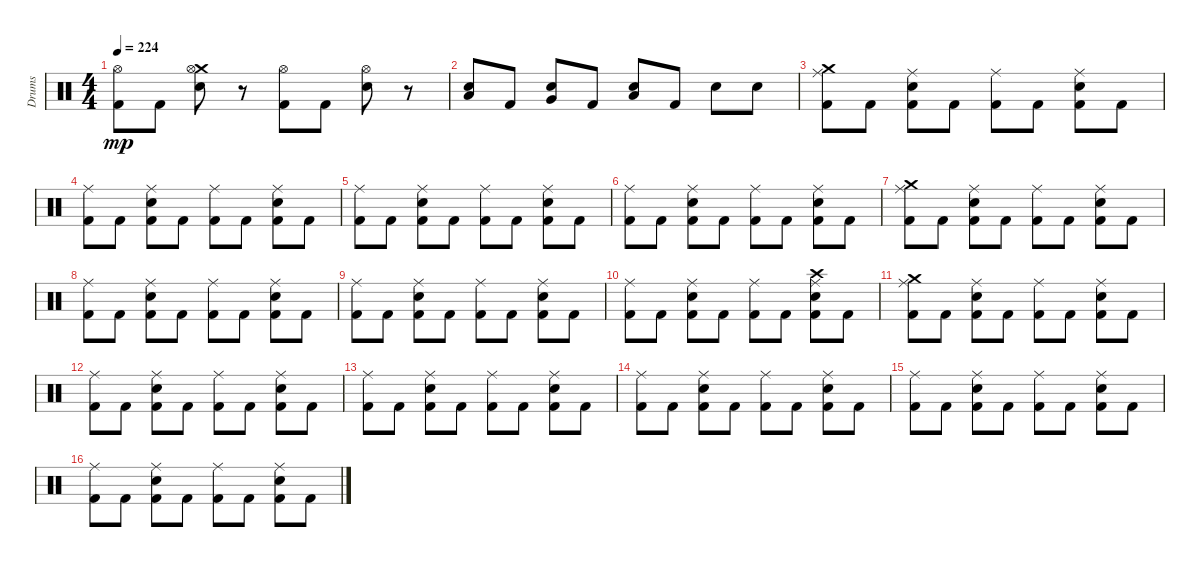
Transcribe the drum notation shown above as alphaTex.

\track ("Drums" "Drums") {instrument percussion}
\staff {score}
\articulation defaults
\ts (4 4)
\tempo 224
\clef neutral
\ks c
("Kick (hit) 2" "Hi-Hat (open)").8{dy mp} "Kick (hit) 2".8 ("Crash medium (hit)" "Hi-Hat (open)" "Electric Snare (hit)").8 r.8 ("Hi-Hat (open)" "Kick (hit) 2").8 "Kick (hit) 2".8 ("Hi-Hat (open)" "Electric Snare (hit)").8 r.8 |
("Electric Snare (hit)" "Low Tom (hit)").8 "Kick (hit) 2".8 ("Very Low Tom (hit)" "Electric Snare (hit)").8 "Kick (hit) 2".8 ("Low Floor Tom (hit)" "Electric Snare (hit)").8 "Kick (hit) 2".8 "Electric Snare (hit)".8 "Electric Snare (hit)".8 |
("Crash medium (hit)" "Kick (hit) 2" "Ride (middle)").8 "Kick (hit) 2".8 ("Electric Snare (hit)" "Kick (hit) 2" "Ride (middle)").8 "Kick (hit) 2".8 ("Ride (middle)" "Kick (hit) 2").8 "Kick (hit) 2".8 ("Electric Snare (hit)" "Kick (hit) 2" "Ride (middle)").8 "Kick (hit) 2".8 |
("Ride (middle)" "Kick (hit) 2").8 "Kick (hit) 2".8 ("Kick (hit) 2" "Ride (middle)" "Electric Snare (hit)").8 "Kick (hit) 2".8 ("Ride (middle)" "Kick (hit) 2").8 "Kick (hit) 2".8 ("Kick (hit) 2" "Electric Snare (hit)" "Ride (middle)").8 "Kick (hit) 2".8 |
("Kick (hit) 2" "Ride (middle)").8 "Kick (hit) 2".8 ("Ride (middle)" "Electric Snare (hit)" "Kick (hit) 2").8 "Kick (hit) 2".8 ("Kick (hit) 2" "Ride (middle)").8 "Kick (hit) 2".8 ("Electric Snare (hit)" "Ride (middle)" "Kick (hit) 2").8 "Kick (hit) 2".8 |
("Kick (hit) 2" "Ride (middle)").8 "Kick (hit) 2".8 ("Kick (hit) 2" "Electric Snare (hit)" "Ride (middle)").8 "Kick (hit) 2".8 ("Ride (middle)" "Kick (hit) 2").8 "Kick (hit) 2".8 ("Electric Snare (hit)" "Kick (hit) 2" "Ride (middle)").8 "Kick (hit) 2".8 |
("Ride (middle)" "Kick (hit) 2" "Crash medium (hit)").8 "Kick (hit) 2".8 ("Ride (middle)" "Electric Snare (hit)" "Kick (hit) 2").8 "Kick (hit) 2".8 ("Ride (middle)" "Kick (hit) 2").8 "Kick (hit) 2".8 ("Ride (middle)" "Electric Snare (hit)" "Kick (hit) 2").8 "Kick (hit) 2".8 |
("Kick (hit) 2" "Ride (middle)").8 "Kick (hit) 2".8 ("Electric Snare (hit)" "Kick (hit) 2" "Ride (middle)").8 "Kick (hit) 2".8 ("Kick (hit) 2" "Ride (middle)").8 "Kick (hit) 2".8 ("Electric Snare (hit)" "Kick (hit) 2" "Ride (middle)").8 "Kick (hit) 2".8 |
("Kick (hit) 2" "Ride (middle)").8 "Kick (hit) 2".8 ("Kick (hit) 2" "Electric Snare (hit)" "Ride (middle)").8 "Kick (hit) 2".8 ("Ride (middle)" "Kick (hit) 2").8 "Kick (hit) 2".8 ("Ride (middle)" "Kick (hit) 2" "Electric Snare (hit)").8 "Kick (hit) 2".8 |
("Kick (hit) 2" "Ride (middle)").8 "Kick (hit) 2".8 ("Electric Snare (hit)" "Ride (middle)" "Kick (hit) 2").8 "Kick (hit) 2".8 ("Ride (middle)" "Kick (hit) 2").8 "Kick (hit) 2".8 ("Ride (middle)" "Electric Snare (hit)" "Crash high (hit)" "Kick (hit) 2").8 "Kick (hit) 2".8 |
("Ride (middle)" "Crash medium (hit)" "Kick (hit) 2").8 "Kick (hit) 2".8 ("Ride (middle)" "Kick (hit) 2" "Electric Snare (hit)").8 "Kick (hit) 2".8 ("Kick (hit) 2" "Ride (middle)").8 "Kick (hit) 2".8 ("Kick (hit) 2" "Ride (middle)" "Electric Snare (hit)").8 "Kick (hit) 2".8 |
("Ride (middle)" "Kick (hit) 2").8 "Kick (hit) 2".8 ("Electric Snare (hit)" "Kick (hit) 2" "Ride (middle)").8 "Kick (hit) 2".8 ("Kick (hit) 2" "Ride (middle)").8 "Kick (hit) 2".8 ("Kick (hit) 2" "Electric Snare (hit)" "Ride (middle)").8 "Kick (hit) 2".8 |
("Ride (middle)" "Kick (hit) 2").8 "Kick (hit) 2".8 ("Electric Snare (hit)" "Kick (hit) 2" "Ride (middle)").8 "Kick (hit) 2".8 ("Ride (middle)" "Kick (hit) 2").8 "Kick (hit) 2".8 ("Kick (hit) 2" "Ride (middle)" "Electric Snare (hit)").8 "Kick (hit) 2".8 |
("Kick (hit) 2" "Ride (middle)").8 "Kick (hit) 2".8 ("Kick (hit) 2" "Electric Snare (hit)" "Ride (middle)").8 "Kick (hit) 2".8 ("Ride (middle)" "Kick (hit) 2").8 "Kick (hit) 2".8 ("Ride (middle)" "Kick (hit) 2" "Electric Snare (hit)").8 "Kick (hit) 2".8 |
("Ride (middle)" "Kick (hit) 2").8 "Kick (hit) 2".8 ("Kick (hit) 2" "Electric Snare (hit)" "Ride (middle)").8 "Kick (hit) 2".8 ("Kick (hit) 2" "Ride (middle)").8 "Kick (hit) 2".8 ("Kick (hit) 2" "Ride (middle)" "Electric Snare (hit)").8 "Kick (hit) 2".8 |
("Ride (middle)" "Kick (hit) 2").8 "Kick (hit) 2".8 ("Ride (middle)" "Electric Snare (hit)" "Kick (hit) 2").8 "Kick (hit) 2".8 ("Kick (hit) 2" "Ride (middle)").8 "Kick (hit) 2".8 ("Ride (middle)" "Kick (hit) 2" "Electric Snare (hit)").8 "Kick (hit) 2".8
